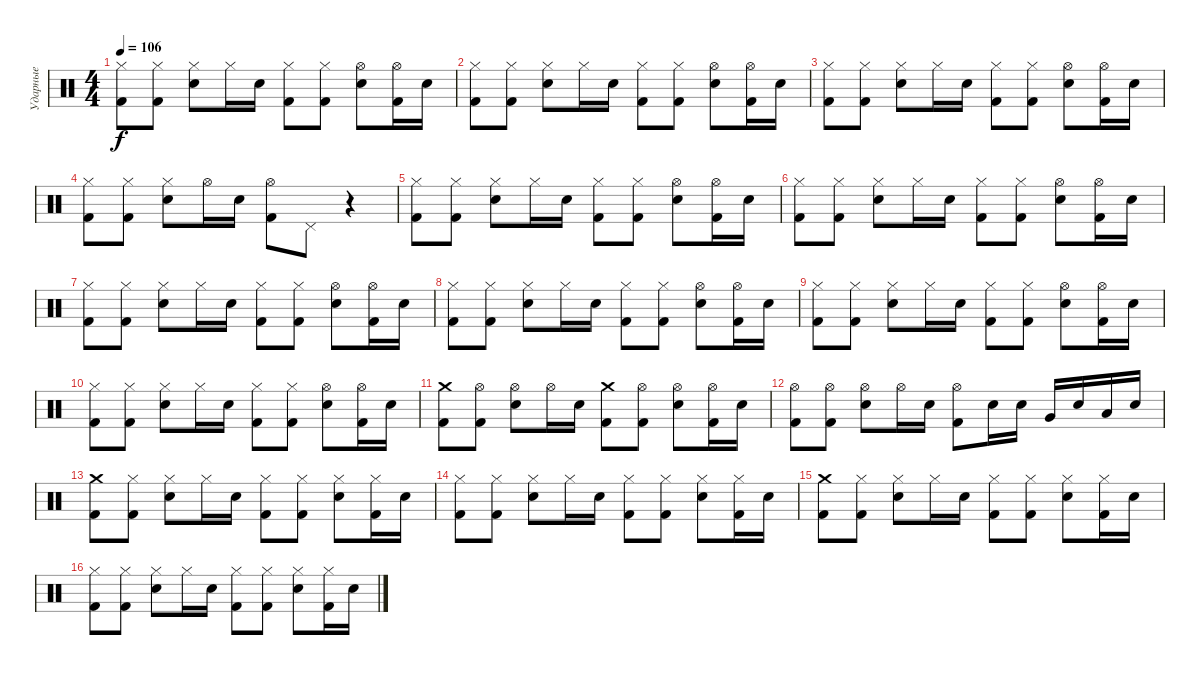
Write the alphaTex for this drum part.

\track ("Ударные" "Ударные") {instrument percussion}
\staff {score}
\articulation defaults
\ts (4 4)
\tempo 106
\clef neutral
\ks c
("Hi-Hat (closed)" "Kick (hit) 2").8{dy f} ("Hi-Hat (closed)" "Kick (hit) 2").8 ("Hi-Hat (closed)" "Electric Snare (hit)").8 "Hi-Hat (closed)".16 "Electric Snare (hit)".16 ("Hi-Hat (closed)" "Kick (hit) 2").8 ("Hi-Hat (closed)" "Kick (hit) 2").8 ("Hi-Hat (open)" "Electric Snare (hit)").8 ("Hi-Hat (open)" "Kick (hit) 2").16 "Electric Snare (hit)".16 |
("Hi-Hat (closed)" "Kick (hit) 2").8 ("Hi-Hat (closed)" "Kick (hit) 2").8 ("Hi-Hat (closed)" "Electric Snare (hit)").8 "Hi-Hat (closed)".16 "Electric Snare (hit)".16 ("Hi-Hat (closed)" "Kick (hit) 2").8 ("Hi-Hat (closed)" "Kick (hit) 2").8 ("Hi-Hat (open)" "Electric Snare (hit)").8 ("Hi-Hat (open)" "Kick (hit) 2").16 "Electric Snare (hit)".16 |
("Hi-Hat (closed)" "Kick (hit) 2").8 ("Hi-Hat (closed)" "Kick (hit) 2").8 ("Hi-Hat (closed)" "Electric Snare (hit)").8 "Hi-Hat (closed)".16 "Electric Snare (hit)".16 ("Hi-Hat (closed)" "Kick (hit) 2").8 ("Hi-Hat (closed)" "Kick (hit) 2").8 ("Hi-Hat (open)" "Electric Snare (hit)").8 ("Hi-Hat (open)" "Kick (hit) 2").16 "Electric Snare (hit)".16 |
("Hi-Hat (closed)" "Kick (hit) 2").8 ("Hi-Hat (closed)" "Kick (hit) 2").8 ("Hi-Hat (closed)" "Electric Snare (hit)").8 "Hi-Hat (open)".16 "Electric Snare (hit)".16 ("Hi-Hat (open)" "Kick (hit) 2").8 "Pedal Hi-Hat (hit)".8 r.4 |
("Hi-Hat (closed)" "Kick (hit) 2").8 ("Hi-Hat (closed)" "Kick (hit) 2").8 ("Hi-Hat (closed)" "Electric Snare (hit)").8 "Hi-Hat (closed)".16 "Electric Snare (hit)".16 ("Hi-Hat (closed)" "Kick (hit) 2").8 ("Hi-Hat (closed)" "Kick (hit) 2").8 ("Hi-Hat (open)" "Electric Snare (hit)").8 ("Hi-Hat (open)" "Kick (hit) 2").16 "Electric Snare (hit)".16 |
("Hi-Hat (closed)" "Kick (hit) 2").8 ("Hi-Hat (closed)" "Kick (hit) 2").8 ("Hi-Hat (closed)" "Electric Snare (hit)").8 "Hi-Hat (closed)".16 "Electric Snare (hit)".16 ("Hi-Hat (closed)" "Kick (hit) 2").8 ("Hi-Hat (closed)" "Kick (hit) 2").8 ("Hi-Hat (open)" "Electric Snare (hit)").8 ("Hi-Hat (open)" "Kick (hit) 2").16 "Electric Snare (hit)".16 |
("Hi-Hat (closed)" "Kick (hit) 2").8 ("Hi-Hat (closed)" "Kick (hit) 2").8 ("Hi-Hat (closed)" "Electric Snare (hit)").8 "Hi-Hat (closed)".16 "Electric Snare (hit)".16 ("Hi-Hat (closed)" "Kick (hit) 2").8 ("Hi-Hat (closed)" "Kick (hit) 2").8 ("Hi-Hat (open)" "Electric Snare (hit)").8 ("Hi-Hat (open)" "Kick (hit) 2").16 "Electric Snare (hit)".16 |
("Hi-Hat (closed)" "Kick (hit) 2").8 ("Hi-Hat (closed)" "Kick (hit) 2").8 ("Hi-Hat (closed)" "Electric Snare (hit)").8 "Hi-Hat (closed)".16 "Electric Snare (hit)".16 ("Hi-Hat (closed)" "Kick (hit) 2").8 ("Hi-Hat (closed)" "Kick (hit) 2").8 ("Hi-Hat (open)" "Electric Snare (hit)").8 ("Hi-Hat (open)" "Kick (hit) 2").16 "Electric Snare (hit)".16 |
("Hi-Hat (closed)" "Kick (hit) 2").8 ("Hi-Hat (closed)" "Kick (hit) 2").8 ("Hi-Hat (closed)" "Electric Snare (hit)").8 "Hi-Hat (closed)".16 "Electric Snare (hit)".16 ("Hi-Hat (closed)" "Kick (hit) 2").8 ("Hi-Hat (closed)" "Kick (hit) 2").8 ("Hi-Hat (open)" "Electric Snare (hit)").8 ("Hi-Hat (open)" "Kick (hit) 2").16 "Electric Snare (hit)".16 |
("Hi-Hat (closed)" "Kick (hit) 2").8 ("Hi-Hat (closed)" "Kick (hit) 2").8 ("Hi-Hat (closed)" "Electric Snare (hit)").8 "Hi-Hat (closed)".16 "Electric Snare (hit)".16 ("Hi-Hat (closed)" "Kick (hit) 2").8 ("Hi-Hat (closed)" "Kick (hit) 2").8 ("Hi-Hat (open)" "Electric Snare (hit)").8 ("Hi-Hat (open)" "Kick (hit) 2").16 "Electric Snare (hit)".16 |
("Crash medium (hit)" "Kick (hit) 2").8 ("Hi-Hat (open)" "Kick (hit) 2").8 ("Hi-Hat (open)" "Electric Snare (hit)").8 "Hi-Hat (open)".16 "Electric Snare (hit)".16 ("Crash medium (hit)" "Kick (hit) 2").8 ("Hi-Hat (open)" "Kick (hit) 2").8 ("Hi-Hat (open)" "Electric Snare (hit)").8 ("Hi-Hat (open)" "Kick (hit) 2").16 "Electric Snare (hit)".16 |
("Hi-Hat (open)" "Kick (hit) 2").8 ("Hi-Hat (open)" "Kick (hit) 2").8 ("Hi-Hat (open)" "Electric Snare (hit)").8 "Hi-Hat (open)".16 "Electric Snare (hit)".16 ("Hi-Hat (open)" "Kick (hit) 2").8 "Electric Snare (hit)".16 "Electric Snare (hit)".16 "Very Low Tom (hit)".16 "Electric Snare (hit)".16 "Low Tom (hit)".16 "Electric Snare (hit)".16 |
("Crash medium (hit)" "Kick (hit) 2").8 ("Hi-Hat (closed)" "Kick (hit) 2").8 ("Hi-Hat (closed)" "Electric Snare (hit)").8 "Hi-Hat (closed)".16 "Electric Snare (hit)".16 ("Hi-Hat (closed)" "Kick (hit) 2").8 ("Hi-Hat (closed)" "Kick (hit) 2").8 ("Hi-Hat (closed)" "Electric Snare (hit)").8 ("Hi-Hat (closed)" "Kick (hit) 2").16 "Electric Snare (hit)".16 |
("Hi-Hat (closed)" "Kick (hit) 2").8 ("Hi-Hat (closed)" "Kick (hit) 2").8 ("Hi-Hat (closed)" "Electric Snare (hit)").8 "Hi-Hat (closed)".16 "Electric Snare (hit)".16 ("Hi-Hat (closed)" "Kick (hit) 2").8 ("Hi-Hat (closed)" "Kick (hit) 2").8 ("Hi-Hat (closed)" "Electric Snare (hit)").8 ("Hi-Hat (closed)" "Kick (hit) 2").16 "Electric Snare (hit)".16 |
("Crash medium (hit)" "Kick (hit) 2").8 ("Hi-Hat (closed)" "Kick (hit) 2").8 ("Hi-Hat (closed)" "Electric Snare (hit)").8 "Hi-Hat (closed)".16 "Electric Snare (hit)".16 ("Hi-Hat (closed)" "Kick (hit) 2").8 ("Hi-Hat (closed)" "Kick (hit) 2").8 ("Hi-Hat (closed)" "Electric Snare (hit)").8 ("Hi-Hat (closed)" "Kick (hit) 2").16 "Electric Snare (hit)".16 |
("Hi-Hat (closed)" "Kick (hit) 2").8 ("Hi-Hat (closed)" "Kick (hit) 2").8 ("Hi-Hat (closed)" "Electric Snare (hit)").8 "Hi-Hat (closed)".16 "Electric Snare (hit)".16 ("Hi-Hat (closed)" "Kick (hit) 2").8 ("Hi-Hat (closed)" "Kick (hit) 2").8 ("Hi-Hat (closed)" "Electric Snare (hit)").8 ("Hi-Hat (closed)" "Kick (hit) 2").16 "Electric Snare (hit)".16
